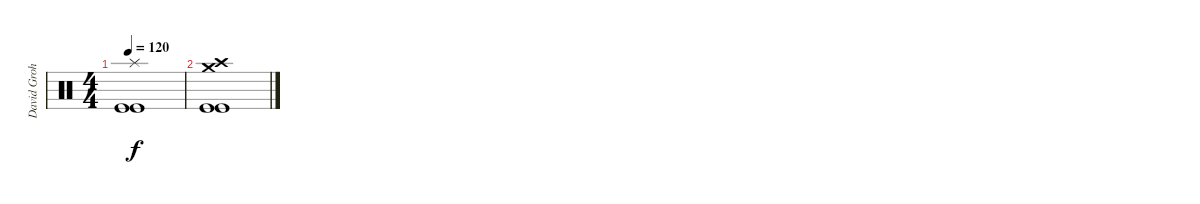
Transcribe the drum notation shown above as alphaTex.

\track ("David Grohl/Alfredo Ortiz" "David Groh") {instrument percussion}
\staff {score}
\articulation defaults
\ts (4 4)
\tempo 120
\clef neutral
\ks c
("Splash (hit)" "Kick (hit)" "Kick (hit)").1{dy f} |
("Crash medium (hit)" "Crash high (hit)" "Kick (hit)" "Kick (hit)").1
